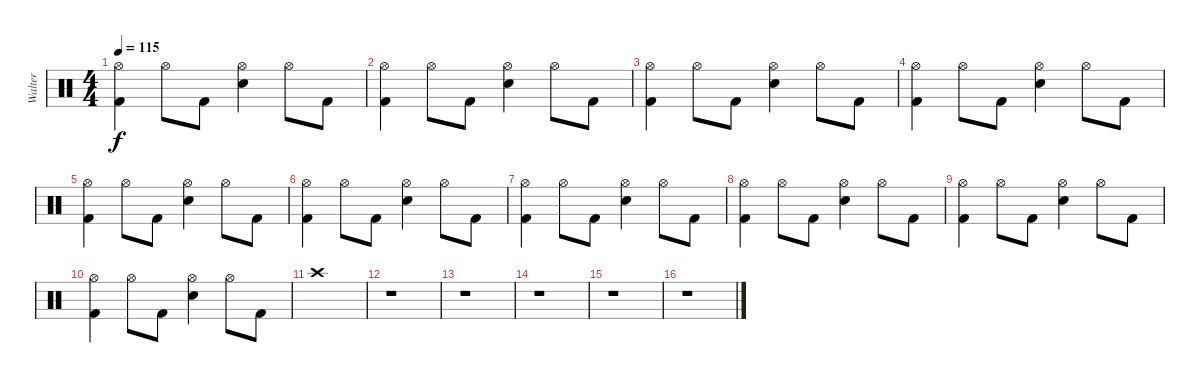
\track ("Walter" "Walter") {instrument percussion}
\staff {score}
\articulation defaults
\ts (4 4)
\tempo 115
\clef neutral
\ks c
("Kick (hit) 2" "Hi-Hat (open)").4{dy f} "Hi-Hat (open)".8 "Kick (hit) 2".8 ("Snare (hit) 2" "Hi-Hat (open)").4 "Hi-Hat (open)".8 "Kick (hit) 2".8 |
("Kick (hit) 2" "Hi-Hat (open)").4 "Hi-Hat (open)".8 "Kick (hit) 2".8 ("Snare (hit) 2" "Hi-Hat (open)").4 "Hi-Hat (open)".8 "Kick (hit) 2".8 |
("Kick (hit) 2" "Hi-Hat (open)").4 "Hi-Hat (open)".8 "Kick (hit) 2".8 ("Snare (hit) 2" "Hi-Hat (open)").4 "Hi-Hat (open)".8 "Kick (hit) 2".8 |
("Kick (hit) 2" "Hi-Hat (open)").4 "Hi-Hat (open)".8 "Kick (hit) 2".8 ("Snare (hit) 2" "Hi-Hat (open)").4 "Hi-Hat (open)".8 "Kick (hit) 2".8 |
("Kick (hit) 2" "Hi-Hat (open)").4 "Hi-Hat (open)".8 "Kick (hit) 2".8 ("Snare (hit) 2" "Hi-Hat (open)").4 "Hi-Hat (open)".8 "Kick (hit) 2".8 |
("Kick (hit) 2" "Hi-Hat (open)").4 "Hi-Hat (open)".8 "Kick (hit) 2".8 ("Snare (hit) 2" "Hi-Hat (open)").4 "Hi-Hat (open)".8 "Kick (hit) 2".8 |
("Kick (hit) 2" "Hi-Hat (open)").4 "Hi-Hat (open)".8 "Kick (hit) 2".8 ("Snare (hit) 2" "Hi-Hat (open)").4 "Hi-Hat (open)".8 "Kick (hit) 2".8 |
("Kick (hit) 2" "Hi-Hat (open)").4 "Hi-Hat (open)".8 "Kick (hit) 2".8 ("Snare (hit) 2" "Hi-Hat (open)").4 "Hi-Hat (open)".8 "Kick (hit) 2".8 |
("Kick (hit) 2" "Hi-Hat (open)").4 "Hi-Hat (open)".8 "Kick (hit) 2".8 ("Snare (hit) 2" "Hi-Hat (open)").4 "Hi-Hat (open)".8 "Kick (hit) 2".8 |
("Kick (hit) 2" "Hi-Hat (open)").4 "Hi-Hat (open)".8 "Kick (hit) 2".8 ("Snare (hit) 2" "Hi-Hat (open)").4 "Hi-Hat (open)".8 "Kick (hit) 2".8 |
"Crash high (hit)".1 |
r.1 |
r.1 |
r.1 |
r.1 |
r.1
